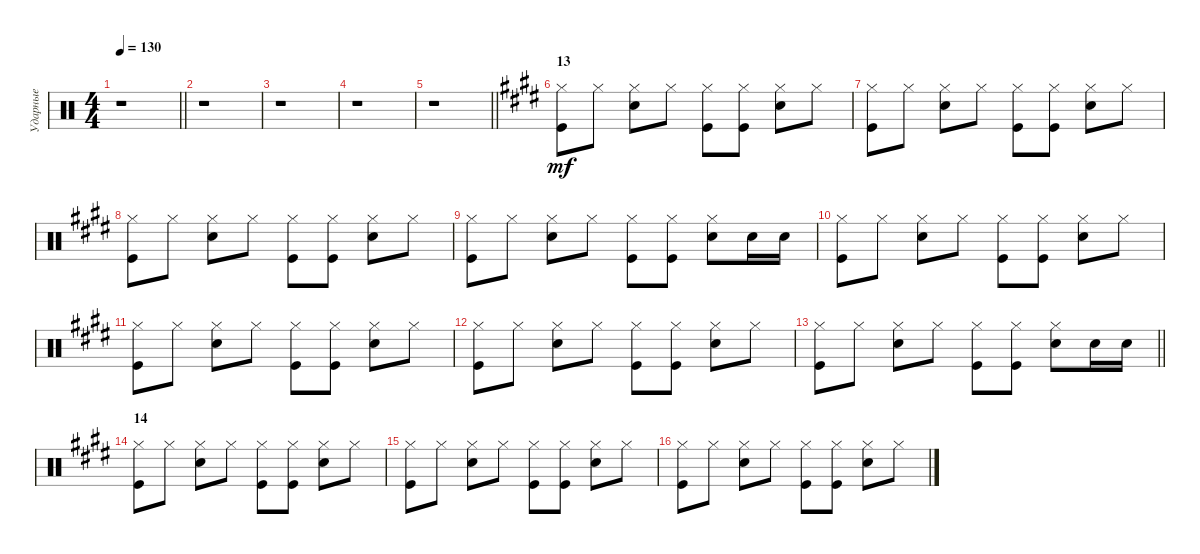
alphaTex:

\track ("Ударные" "Ударные") {instrument percussion}
\staff {score}
\articulation defaults
\ts (4 4)
\tempo 130
\clef neutral
\barLineRight lightlight
\ks c
r.1{dy mp} |
r.1 |
r.1 |
r.1 |
\barLineRight lightlight
r.1 |
\section ("" "13")
\ks e
("Hi-Hat (closed)" "Kick (hit)").8{dy mf} "Hi-Hat (closed)".8 ("Hi-Hat (closed)" "Snare (hit) 2").8 "Hi-Hat (closed)".8 ("Hi-Hat (closed)" "Kick (hit)").8 ("Hi-Hat (closed)" "Kick (hit)").8 ("Hi-Hat (closed)" "Snare (hit) 2").8 "Hi-Hat (closed)".8 |
("Hi-Hat (closed)" "Kick (hit)").8 "Hi-Hat (closed)".8 ("Hi-Hat (closed)" "Snare (hit) 2").8 "Hi-Hat (closed)".8 ("Hi-Hat (closed)" "Kick (hit)").8 ("Hi-Hat (closed)" "Kick (hit)").8 ("Hi-Hat (closed)" "Snare (hit) 2").8 "Hi-Hat (closed)".8 |
("Hi-Hat (closed)" "Kick (hit)").8 "Hi-Hat (closed)".8 ("Hi-Hat (closed)" "Snare (hit) 2").8 "Hi-Hat (closed)".8 ("Hi-Hat (closed)" "Kick (hit)").8 ("Hi-Hat (closed)" "Kick (hit)").8 ("Hi-Hat (closed)" "Snare (hit) 2").8 "Hi-Hat (closed)".8 |
("Hi-Hat (closed)" "Kick (hit)").8 "Hi-Hat (closed)".8 ("Hi-Hat (closed)" "Snare (hit) 2").8 "Hi-Hat (closed)".8 ("Hi-Hat (closed)" "Kick (hit)").8 ("Hi-Hat (closed)" "Kick (hit)").8 ("Hi-Hat (closed)" "Snare (hit) 2").8 "Snare (hit) 2".16 "Snare (hit) 2".16 |
("Hi-Hat (closed)" "Kick (hit)").8 "Hi-Hat (closed)".8 ("Hi-Hat (closed)" "Snare (hit) 2").8 "Hi-Hat (closed)".8 ("Hi-Hat (closed)" "Kick (hit)").8 ("Hi-Hat (closed)" "Kick (hit)").8 ("Hi-Hat (closed)" "Snare (hit) 2").8 "Hi-Hat (closed)".8 |
("Hi-Hat (closed)" "Kick (hit)").8 "Hi-Hat (closed)".8 ("Hi-Hat (closed)" "Snare (hit) 2").8 "Hi-Hat (closed)".8 ("Hi-Hat (closed)" "Kick (hit)").8 ("Hi-Hat (closed)" "Kick (hit)").8 ("Hi-Hat (closed)" "Snare (hit) 2").8 "Hi-Hat (closed)".8 |
("Hi-Hat (closed)" "Kick (hit)").8 "Hi-Hat (closed)".8 ("Hi-Hat (closed)" "Snare (hit) 2").8 "Hi-Hat (closed)".8 ("Hi-Hat (closed)" "Kick (hit)").8 ("Hi-Hat (closed)" "Kick (hit)").8 ("Hi-Hat (closed)" "Snare (hit) 2").8 "Hi-Hat (closed)".8 |
\barLineRight lightlight
("Hi-Hat (closed)" "Kick (hit)").8 "Hi-Hat (closed)".8 ("Hi-Hat (closed)" "Snare (hit) 2").8 "Hi-Hat (closed)".8 ("Hi-Hat (closed)" "Kick (hit)").8 ("Hi-Hat (closed)" "Kick (hit)").8 ("Hi-Hat (closed)" "Snare (hit) 2").8 "Snare (hit) 2".16 "Snare (hit) 2".16 |
\section ("" "14")
("Hi-Hat (closed)" "Kick (hit)").8 "Hi-Hat (closed)".8 ("Hi-Hat (closed)" "Snare (hit) 2").8 "Hi-Hat (closed)".8 ("Hi-Hat (closed)" "Kick (hit)").8 ("Hi-Hat (closed)" "Kick (hit)").8 ("Hi-Hat (closed)" "Snare (hit) 2").8 "Hi-Hat (closed)".8 |
("Hi-Hat (closed)" "Kick (hit)").8 "Hi-Hat (closed)".8 ("Hi-Hat (closed)" "Snare (hit) 2").8 "Hi-Hat (closed)".8 ("Hi-Hat (closed)" "Kick (hit)").8 ("Hi-Hat (closed)" "Kick (hit)").8 ("Hi-Hat (closed)" "Snare (hit) 2").8 "Hi-Hat (closed)".8 |
("Hi-Hat (closed)" "Kick (hit)").8 "Hi-Hat (closed)".8 ("Hi-Hat (closed)" "Snare (hit) 2").8 "Hi-Hat (closed)".8 ("Hi-Hat (closed)" "Kick (hit)").8 ("Hi-Hat (closed)" "Kick (hit)").8 ("Hi-Hat (closed)" "Snare (hit) 2").8 "Hi-Hat (closed)".8
